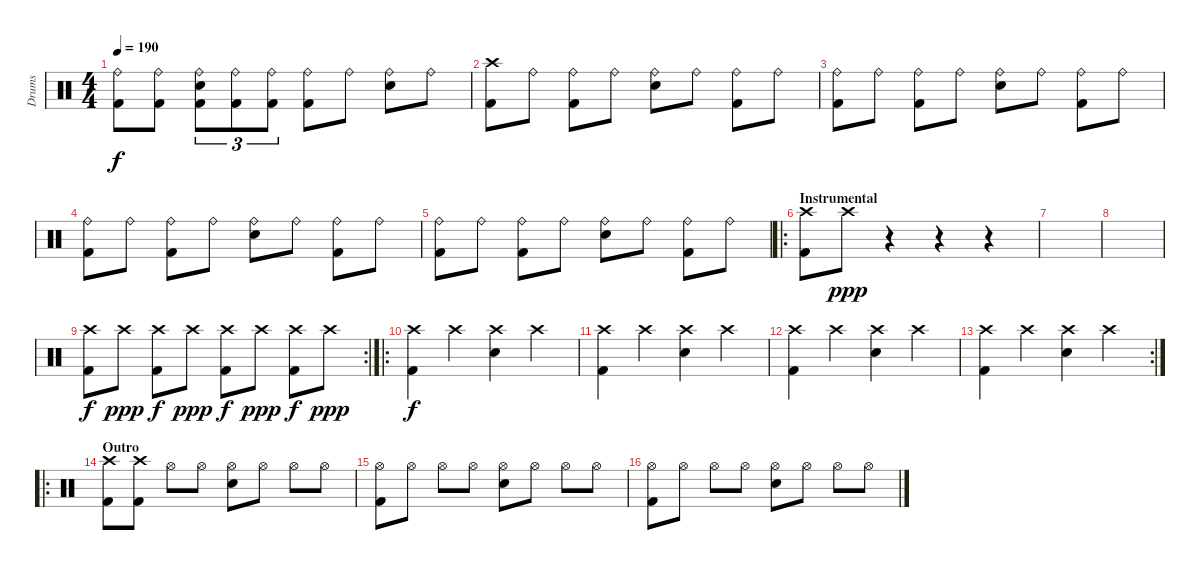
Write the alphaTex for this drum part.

\track ("Drums" "Drums") {instrument percussion}
\staff {score}
\articulation defaults
\ts (4 4)
\tempo 190
\clef neutral
\ks c
("Ride (bell)" "Kick (hit) 2").8{dy f} ("Ride (bell)" "Kick (hit) 2").8 ("Ride (bell)" "Kick (hit) 2" "Electric Snare (hit)").8{tu (3 2)} ("Ride (bell)" "Kick (hit) 2").8{tu (3 2)} ("Ride (bell)" "Kick (hit) 2").8{tu (3 2)} ("Ride (bell)" "Kick (hit) 2").8 "Ride (bell)".8 ("Ride (bell)" "Electric Snare (hit)").8 "Ride (bell)".8 |
("Crash high (hit)" "Kick (hit) 2").8 "Ride (bell)".8 ("Ride (bell)" "Kick (hit) 2").8 "Ride (bell)".8 ("Ride (bell)" "Electric Snare (hit)").8 "Ride (bell)".8 ("Ride (bell)" "Kick (hit) 2").8 "Ride (bell)".8 |
("Ride (bell)" "Kick (hit) 2").8 "Ride (bell)".8 ("Ride (bell)" "Kick (hit) 2").8 "Ride (bell)".8 ("Ride (bell)" "Electric Snare (hit)").8 "Ride (bell)".8 ("Ride (bell)" "Kick (hit) 2").8 "Ride (bell)".8 |
("Ride (bell)" "Kick (hit) 2").8 "Ride (bell)".8 ("Ride (bell)" "Kick (hit) 2").8 "Ride (bell)".8 ("Ride (bell)" "Electric Snare (hit)").8 "Ride (bell)".8 ("Ride (bell)" "Kick (hit) 2").8 "Ride (bell)".8 |
("Ride (bell)" "Kick (hit) 2").8 "Ride (bell)".8 ("Ride (bell)" "Kick (hit) 2").8 "Ride (bell)".8 ("Ride (bell)" "Electric Snare (hit)").8 "Ride (bell)".8 ("Ride (bell)" "Kick (hit) 2").8 "Ride (bell)".8 |
\ro
\section ("" "Instrumental")
("Crash high (hit)" "Kick (hit) 2").8 "Crash high (hit)".8{dy ppp} r.4 r.4 r.4 |
|
|
\rc 2
("Crash high (hit)" "Kick (hit) 2").8{dy f} "Crash high (hit)".8{dy ppp} ("Crash high (hit)" "Kick (hit) 2").8{dy f} "Crash high (hit)".8{dy ppp} ("Crash high (hit)" "Kick (hit) 2").8{dy f} "Crash high (hit)".8{dy ppp} ("Crash high (hit)" "Kick (hit) 2").8{dy f} "Crash high (hit)".8{dy ppp} |
\ro
("Crash high (hit)" "Kick (hit) 2").4{dy f} "Crash high (hit)".4 ("Crash high (hit)" "Electric Snare (hit)").4 "Crash high (hit)".4 |
("Crash high (hit)" "Kick (hit) 2").4 "Crash high (hit)".4 ("Crash high (hit)" "Electric Snare (hit)").4 "Crash high (hit)".4 |
("Crash high (hit)" "Kick (hit) 2").4 "Crash high (hit)".4 ("Crash high (hit)" "Electric Snare (hit)").4 "Crash high (hit)".4 |
\rc 2
("Crash high (hit)" "Kick (hit) 2").4 "Crash high (hit)".4 ("Crash high (hit)" "Electric Snare (hit)").4 "Crash high (hit)".4 |
\ro
\section ("" "Outro")
("Crash high (hit)" "Kick (hit) 2").8 ("Crash high (hit)" "Kick (hit) 2").8 "Hi-Hat (open)".8 "Hi-Hat (open)".8 ("Hi-Hat (open)" "Electric Snare (hit)").8 "Hi-Hat (open)".8 "Hi-Hat (open)".8 "Hi-Hat (open)".8 |
("Hi-Hat (open)" "Kick (hit) 2").8 "Hi-Hat (open)".8 "Hi-Hat (open)".8 "Hi-Hat (open)".8 ("Hi-Hat (open)" "Electric Snare (hit)").8 "Hi-Hat (open)".8 "Hi-Hat (open)".8 "Hi-Hat (open)".8 |
("Hi-Hat (open)" "Kick (hit) 2").8 "Hi-Hat (open)".8 "Hi-Hat (open)".8 "Hi-Hat (open)".8 ("Hi-Hat (open)" "Electric Snare (hit)").8 "Hi-Hat (open)".8 "Hi-Hat (open)".8 "Hi-Hat (open)".8
